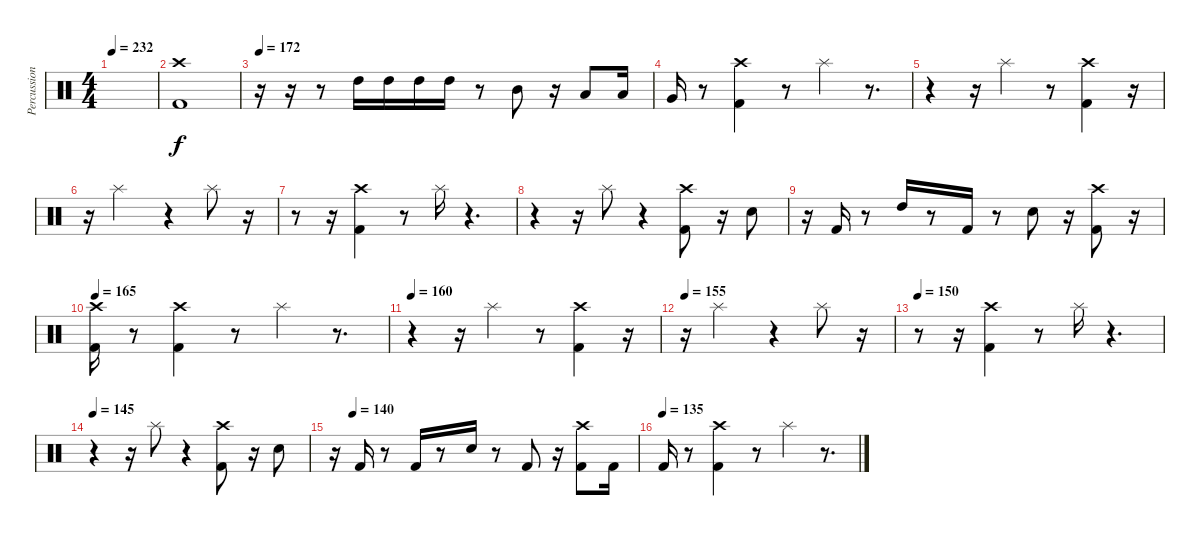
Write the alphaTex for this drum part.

\track ("Percussion" "Percussion") {instrument percussion}
\staff {score}
\articulation defaults
\ts (4 4)
\tempo 232
\clef neutral
\ks c
|
("Crash high (hit)" "Kick (hit) 2").1 |
\tempo 172
r.16 r.16 r.8 "High Tom (hit)".16 "High Tom (hit)".16 "High Tom (hit)".16 "High Tom (hit)".16 r.8 "Mid Tom (hit)".8 r.16 "Low Tom (hit)".8 "Low Tom (hit)".16 |
"Very Low Tom (hit)".16 r.8 ("Crash high (hit)" "Kick (hit) 2").4 r.8 "Splash (hit)".4 r.8{d} |
r.4 r.16 "Splash (hit)".4 r.8 ("Crash high (hit)" "Kick (hit) 2").4 r.16 |
r.16 "Splash (hit)".2 r.4 "Splash (hit)".8 r.16 |
r.8 r.16 ("Crash high (hit)" "Kick (hit) 2").4 r.8 "Splash (hit)".16 r.4{d} |
r.4 r.16 "Splash (hit)".8 r.4 ("Crash high (hit)" "Kick (hit) 2").8 r.16 "Electric Snare (hit)".8 |
r.16 "Kick (hit) 2".16 r.8 "High Tom (hit)".16 r.8 "Kick (hit) 2".16 r.8 "Electric Snare (hit)".8 r.16 ("Crash high (hit)" "Kick (hit) 2").8 r.16 |
\tempo 165
("Crash high (hit)" "Kick (hit) 2").16 r.8 ("Crash high (hit)" "Kick (hit) 2").4 r.8 "Splash (hit)".4 r.8{d} |
\tempo 160
r.4 r.16 "Splash (hit)".4 r.8 ("Crash high (hit)" "Kick (hit) 2").4 r.16 |
\tempo 155
r.16 "Splash (hit)".2 r.4 "Splash (hit)".8 r.16 |
\tempo 150
r.8 r.16 ("Crash high (hit)" "Kick (hit) 2").4 r.8 "Splash (hit)".16 r.4{d} |
\tempo 145
r.4 r.16 "Splash (hit)".8 r.4 ("Crash high (hit)" "Kick (hit) 2").8 r.16 "Electric Snare (hit)".8 |
\tempo (140 0.0625)
r.16 "Kick (hit) 2".16 r.8 "Kick (hit) 2".16 r.8 "Electric Snare (hit)".16 r.8 "Kick (hit) 2".8 r.16 ("Crash high (hit)" "Kick (hit) 2").8 "Kick (hit) 2".16 |
\tempo (135)
"Kick (hit) 2".16 r.8 ("Crash high (hit)" "Kick (hit) 2").4 r.8 "Splash (hit)".4 r.8{d}
